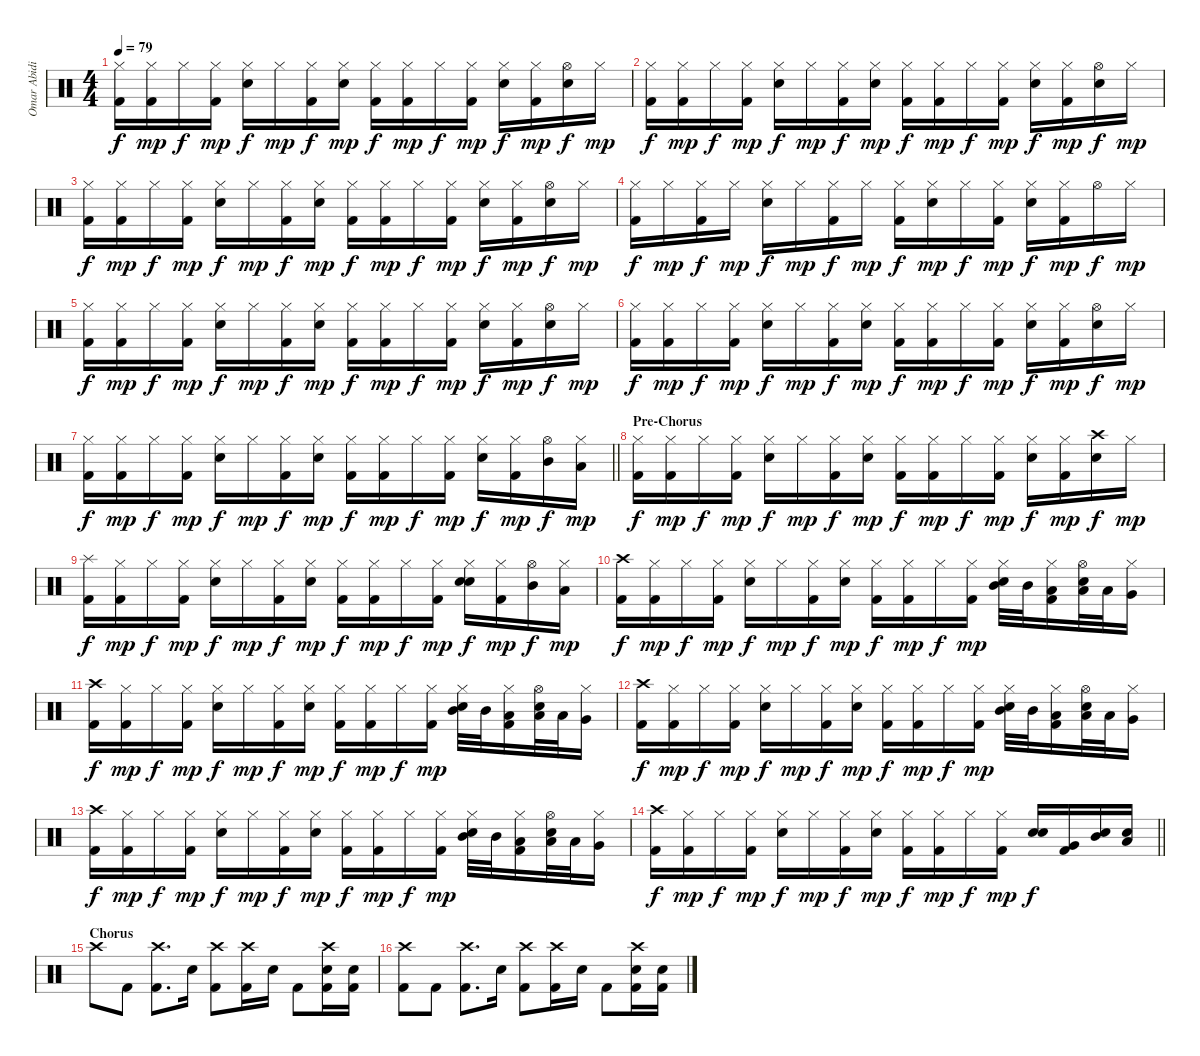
\track ("Omar Abidi" "Omar Abidi") {instrument percussion}
\staff {score}
\articulation defaults
\ts (4 4)
\tempo 79
\clef neutral
\ks c
("Hi-Hat (closed)" "Kick (hit) 2").16{dy f} ("Hi-Hat (closed)" "Kick (hit) 2").16{dy mp} "Hi-Hat (closed)".16{dy f} ("Hi-Hat (closed)" "Kick (hit) 2").16{dy mp} ("Hi-Hat (closed)" "Electric Snare (hit)").16{dy f} "Hi-Hat (closed)".16{dy mp} ("Hi-Hat (closed)" "Kick (hit) 2").16{dy f} ("Hi-Hat (closed)" "Electric Snare (hit)").16{dy mp} ("Hi-Hat (closed)" "Kick (hit) 2").16{dy f} ("Hi-Hat (closed)" "Kick (hit) 2").16{dy mp} "Hi-Hat (closed)".16{dy f} ("Hi-Hat (closed)" "Kick (hit) 2").16{dy mp} ("Hi-Hat (closed)" "Electric Snare (hit)").16{dy f} ("Hi-Hat (closed)" "Kick (hit) 2").16{dy mp} ("Hi-Hat (open)" "Electric Snare (hit)").16{dy f} "Hi-Hat (closed)".16{dy mp} |
("Hi-Hat (closed)" "Kick (hit) 2").16{dy f} ("Hi-Hat (closed)" "Kick (hit) 2").16{dy mp} "Hi-Hat (closed)".16{dy f} ("Hi-Hat (closed)" "Kick (hit) 2").16{dy mp} ("Hi-Hat (closed)" "Electric Snare (hit)").16{dy f} "Hi-Hat (closed)".16{dy mp} ("Hi-Hat (closed)" "Kick (hit) 2").16{dy f} ("Hi-Hat (closed)" "Electric Snare (hit)").16{dy mp} ("Hi-Hat (closed)" "Kick (hit) 2").16{dy f} ("Hi-Hat (closed)" "Kick (hit) 2").16{dy mp} "Hi-Hat (closed)".16{dy f} ("Hi-Hat (closed)" "Kick (hit) 2").16{dy mp} ("Hi-Hat (closed)" "Electric Snare (hit)").16{dy f} ("Hi-Hat (closed)" "Kick (hit) 2").16{dy mp} ("Hi-Hat (open)" "Electric Snare (hit)").16{dy f} "Hi-Hat (closed)".16{dy mp} |
("Hi-Hat (closed)" "Kick (hit) 2").16{dy f} ("Hi-Hat (closed)" "Kick (hit) 2").16{dy mp} "Hi-Hat (closed)".16{dy f} ("Hi-Hat (closed)" "Kick (hit) 2").16{dy mp} ("Hi-Hat (closed)" "Electric Snare (hit)").16{dy f} "Hi-Hat (closed)".16{dy mp} ("Hi-Hat (closed)" "Kick (hit) 2").16{dy f} ("Hi-Hat (closed)" "Electric Snare (hit)").16{dy mp} ("Hi-Hat (closed)" "Kick (hit) 2").16{dy f} ("Hi-Hat (closed)" "Kick (hit) 2").16{dy mp} "Hi-Hat (closed)".16{dy f} ("Hi-Hat (closed)" "Kick (hit) 2").16{dy mp} ("Hi-Hat (closed)" "Electric Snare (hit)").16{dy f} ("Hi-Hat (closed)" "Kick (hit) 2").16{dy mp} ("Hi-Hat (open)" "Electric Snare (hit)").16{dy f} "Hi-Hat (closed)".16{dy mp} |
("Hi-Hat (closed)" "Kick (hit) 2").16{dy f} "Hi-Hat (closed)".16{dy mp} ("Hi-Hat (closed)" "Kick (hit) 2").16{dy f} "Hi-Hat (closed)".16{dy mp} ("Hi-Hat (closed)" "Electric Snare (hit)").16{dy f} "Hi-Hat (closed)".16{dy mp} ("Hi-Hat (closed)" "Kick (hit) 2").16{dy f} "Hi-Hat (closed)".16{dy mp} ("Hi-Hat (closed)" "Kick (hit) 2").16{dy f} ("Hi-Hat (closed)" "Electric Snare (hit)").16{dy mp} "Hi-Hat (closed)".16{dy f} ("Hi-Hat (closed)" "Kick (hit) 2").16{dy mp} ("Hi-Hat (closed)" "Electric Snare (hit)").16{dy f} ("Hi-Hat (closed)" "Kick (hit) 2").16{dy mp} "Hi-Hat (open)".16{dy f} "Hi-Hat (closed)".16{dy mp} |
("Hi-Hat (closed)" "Kick (hit) 2").16{dy f} ("Hi-Hat (closed)" "Kick (hit) 2").16{dy mp} "Hi-Hat (closed)".16{dy f} ("Hi-Hat (closed)" "Kick (hit) 2").16{dy mp} ("Hi-Hat (closed)" "Electric Snare (hit)").16{dy f} "Hi-Hat (closed)".16{dy mp} ("Hi-Hat (closed)" "Kick (hit) 2").16{dy f} ("Hi-Hat (closed)" "Electric Snare (hit)").16{dy mp} ("Hi-Hat (closed)" "Kick (hit) 2").16{dy f} ("Hi-Hat (closed)" "Kick (hit) 2").16{dy mp} "Hi-Hat (closed)".16{dy f} ("Hi-Hat (closed)" "Kick (hit) 2").16{dy mp} ("Hi-Hat (closed)" "Electric Snare (hit)").16{dy f} ("Hi-Hat (closed)" "Kick (hit) 2").16{dy mp} ("Hi-Hat (open)" "Electric Snare (hit)").16{dy f} "Hi-Hat (closed)".16{dy mp} |
("Hi-Hat (closed)" "Kick (hit) 2").16{dy f} ("Hi-Hat (closed)" "Kick (hit) 2").16{dy mp} "Hi-Hat (closed)".16{dy f} ("Hi-Hat (closed)" "Kick (hit) 2").16{dy mp} ("Hi-Hat (closed)" "Electric Snare (hit)").16{dy f} "Hi-Hat (closed)".16{dy mp} ("Hi-Hat (closed)" "Kick (hit) 2").16{dy f} ("Hi-Hat (closed)" "Electric Snare (hit)").16{dy mp} ("Hi-Hat (closed)" "Kick (hit) 2").16{dy f} ("Hi-Hat (closed)" "Kick (hit) 2").16{dy mp} "Hi-Hat (closed)".16{dy f} ("Hi-Hat (closed)" "Kick (hit) 2").16{dy mp} ("Hi-Hat (closed)" "Electric Snare (hit)").16{dy f} ("Hi-Hat (closed)" "Kick (hit) 2").16{dy mp} ("Hi-Hat (open)" "Electric Snare (hit)").16{dy f} "Hi-Hat (closed)".16{dy mp} |
\barLineRight lightlight
("Hi-Hat (closed)" "Kick (hit) 2").16{dy f} ("Hi-Hat (closed)" "Kick (hit) 2").16{dy mp} "Hi-Hat (closed)".16{dy f} ("Hi-Hat (closed)" "Kick (hit) 2").16{dy mp} ("Hi-Hat (closed)" "Electric Snare (hit)").16{dy f} "Hi-Hat (closed)".16{dy mp} ("Hi-Hat (closed)" "Kick (hit) 2").16{dy f} ("Hi-Hat (closed)" "Electric Snare (hit)").16{dy mp} ("Hi-Hat (closed)" "Kick (hit) 2").16{dy f} ("Hi-Hat (closed)" "Kick (hit) 2").16{dy mp} "Hi-Hat (closed)".16{dy f} ("Hi-Hat (closed)" "Kick (hit) 2").16{dy mp} ("Hi-Hat (closed)" "Electric Snare (hit)").16{dy f} ("Hi-Hat (closed)" "Kick (hit) 2").16{dy mp} ("Hi-Hat (open)" "Mid Tom (hit)").16{dy f} ("Hi-Hat (closed)" "Low Tom (hit)").16{dy mp} |
\section ("" "Pre-Chorus")
("Hi-Hat (closed)" "Kick (hit) 2").16{dy f} ("Hi-Hat (closed)" "Kick (hit) 2").16{dy mp} "Hi-Hat (closed)".16{dy f} ("Hi-Hat (closed)" "Kick (hit) 2").16{dy mp} ("Hi-Hat (closed)" "Electric Snare (hit)").16{dy f} "Hi-Hat (closed)".16{dy mp} ("Hi-Hat (closed)" "Kick (hit) 2").16{dy f} ("Hi-Hat (closed)" "Electric Snare (hit)").16{dy mp} ("Hi-Hat (closed)" "Kick (hit) 2").16{dy f} ("Hi-Hat (closed)" "Kick (hit) 2").16{dy mp} "Hi-Hat (closed)".16{dy f} ("Hi-Hat (closed)" "Kick (hit) 2").16{dy mp} ("Hi-Hat (closed)" "Electric Snare (hit)").16{dy f} ("Hi-Hat (closed)" "Kick (hit) 2").16{dy mp} ("Crash high (hit)" "Electric Snare (hit)").16{dy f} "Hi-Hat (closed)".16{dy mp} |
("Splash (hit)" "Kick (hit) 2").16{dy f} ("Hi-Hat (closed)" "Kick (hit) 2").16{dy mp} "Hi-Hat (closed)".16{dy f} ("Hi-Hat (closed)" "Kick (hit) 2").16{dy mp} ("Hi-Hat (closed)" "Electric Snare (hit)").16{dy f} "Hi-Hat (closed)".16{dy mp} ("Hi-Hat (closed)" "Kick (hit) 2").16{dy f} ("Hi-Hat (closed)" "Electric Snare (hit)").16{dy mp} ("Hi-Hat (closed)" "Kick (hit) 2").16{dy f} ("Hi-Hat (closed)" "Kick (hit) 2").16{dy mp} "Hi-Hat (closed)".16{dy f} ("Hi-Hat (closed)" "Kick (hit) 2").16{dy mp} ("Hi-Hat (closed)" "Electric Snare (hit)" "Electric Snare (hit)").16{bd 240 dy f} ("Hi-Hat (closed)" "Kick (hit) 2").16{dy mp} ("Hi-Hat (open)" "Mid Tom (hit)").16{dy f} ("Hi-Hat (closed)" "Low Tom (hit)").16{dy mp} |
("Crash high (hit)" "Kick (hit) 2").16{dy f} ("Hi-Hat (closed)" "Kick (hit) 2").16{dy mp} "Hi-Hat (closed)".16{dy f} ("Hi-Hat (closed)" "Kick (hit) 2").16{dy mp} ("Hi-Hat (closed)" "Electric Snare (hit)").16{dy f} "Hi-Hat (closed)".16{dy mp} ("Hi-Hat (closed)" "Kick (hit) 2").16{dy f} ("Hi-Hat (closed)" "Electric Snare (hit)").16{dy mp} ("Hi-Hat (closed)" "Kick (hit) 2").16{dy f} ("Hi-Hat (closed)" "Kick (hit) 2").16{dy mp} "Hi-Hat (closed)".16{dy f} ("Hi-Hat (closed)" "Kick (hit) 2").16{dy mp} ("Hi-Hat (closed)" "Electric Snare (hit)" "Mid Tom (hit)").32 "Mid Tom (hit)".32 ("Hi-Hat (closed)" "Low Tom (hit)" "Kick (hit) 2").16 ("Hi-Hat (open)" "Electric Snare (hit)" "Low Tom (hit)").32 "Low Tom (hit)".32 ("Hi-Hat (closed)" "Very Low Tom (hit)").16 |
("Crash high (hit)" "Kick (hit) 2").16{dy f} ("Hi-Hat (closed)" "Kick (hit) 2").16{dy mp} "Hi-Hat (closed)".16{dy f} ("Hi-Hat (closed)" "Kick (hit) 2").16{dy mp} ("Hi-Hat (closed)" "Electric Snare (hit)").16{dy f} "Hi-Hat (closed)".16{dy mp} ("Hi-Hat (closed)" "Kick (hit) 2").16{dy f} ("Hi-Hat (closed)" "Electric Snare (hit)").16{dy mp} ("Hi-Hat (closed)" "Kick (hit) 2").16{dy f} ("Hi-Hat (closed)" "Kick (hit) 2").16{dy mp} "Hi-Hat (closed)".16{dy f} ("Hi-Hat (closed)" "Kick (hit) 2").16{dy mp} ("Hi-Hat (closed)" "Electric Snare (hit)" "Mid Tom (hit)").32 "Mid Tom (hit)".32 ("Hi-Hat (closed)" "Low Tom (hit)" "Kick (hit) 2").16 ("Hi-Hat (open)" "Electric Snare (hit)" "Low Tom (hit)").32 "Low Tom (hit)".32 ("Hi-Hat (closed)" "Very Low Tom (hit)").16 |
("Crash high (hit)" "Kick (hit) 2").16{dy f} ("Hi-Hat (closed)" "Kick (hit) 2").16{dy mp} "Hi-Hat (closed)".16{dy f} ("Hi-Hat (closed)" "Kick (hit) 2").16{dy mp} ("Hi-Hat (closed)" "Electric Snare (hit)").16{dy f} "Hi-Hat (closed)".16{dy mp} ("Hi-Hat (closed)" "Kick (hit) 2").16{dy f} ("Hi-Hat (closed)" "Electric Snare (hit)").16{dy mp} ("Hi-Hat (closed)" "Kick (hit) 2").16{dy f} ("Hi-Hat (closed)" "Kick (hit) 2").16{dy mp} "Hi-Hat (closed)".16{dy f} ("Hi-Hat (closed)" "Kick (hit) 2").16{dy mp} ("Hi-Hat (closed)" "Electric Snare (hit)" "Mid Tom (hit)").32 "Mid Tom (hit)".32 ("Hi-Hat (closed)" "Low Tom (hit)" "Kick (hit) 2").16 ("Hi-Hat (open)" "Electric Snare (hit)" "Low Tom (hit)").32 "Low Tom (hit)".32 ("Hi-Hat (closed)" "Very Low Tom (hit)").16 |
("Crash high (hit)" "Kick (hit) 2").16{dy f} ("Hi-Hat (closed)" "Kick (hit) 2").16{dy mp} "Hi-Hat (closed)".16{dy f} ("Hi-Hat (closed)" "Kick (hit) 2").16{dy mp} ("Hi-Hat (closed)" "Electric Snare (hit)").16{dy f} "Hi-Hat (closed)".16{dy mp} ("Hi-Hat (closed)" "Kick (hit) 2").16{dy f} ("Hi-Hat (closed)" "Electric Snare (hit)").16{dy mp} ("Hi-Hat (closed)" "Kick (hit) 2").16{dy f} ("Hi-Hat (closed)" "Kick (hit) 2").16{dy mp} "Hi-Hat (closed)".16{dy f} ("Hi-Hat (closed)" "Kick (hit) 2").16{dy mp} ("Hi-Hat (closed)" "Electric Snare (hit)" "Mid Tom (hit)").32 "Mid Tom (hit)".32 ("Hi-Hat (closed)" "Low Tom (hit)" "Kick (hit) 2").16 ("Hi-Hat (open)" "Electric Snare (hit)" "Low Tom (hit)").32 "Low Tom (hit)".32 ("Hi-Hat (closed)" "Very Low Tom (hit)").16 |
\barLineRight lightlight
("Crash high (hit)" "Kick (hit) 2").16{dy f} ("Hi-Hat (closed)" "Kick (hit) 2").16{dy mp} "Hi-Hat (closed)".16{dy f} ("Hi-Hat (closed)" "Kick (hit) 2").16{dy mp} ("Hi-Hat (closed)" "Electric Snare (hit)").16{dy f} "Hi-Hat (closed)".16{dy mp} ("Hi-Hat (closed)" "Kick (hit) 2").16{dy f} ("Hi-Hat (closed)" "Electric Snare (hit)").16{dy mp} ("Hi-Hat (closed)" "Kick (hit) 2").16{dy f} ("Hi-Hat (closed)" "Kick (hit) 2").16{dy mp} "Hi-Hat (closed)".16{dy f} ("Hi-Hat (closed)" "Kick (hit) 2").16{dy mp} ("Electric Snare (hit)" "Electric Snare (hit)").16{bd 240 dy f} ("Very Low Tom (hit)" "Kick (hit) 2").16 ("Mid Tom (hit)" "Electric Snare (hit)").16 ("Low Tom (hit)" "Electric Snare (hit)").16 |
\section ("" "Chorus")
"Crash high (hit)".8 "Kick (hit) 2".8 ("Crash high (hit)" "Kick (hit) 2").8{d} "Electric Snare (hit)".16 ("Crash high (hit)" "Kick (hit) 2").8 ("Crash high (hit)" "Kick (hit) 2").16 "Electric Snare (hit)".16 "Kick (hit) 2".8 ("Crash high (hit)" "Electric Snare (hit)" "Kick (hit) 2").16 ("Electric Snare (hit)" "Kick (hit) 2").16 |
("Crash high (hit)" "Kick (hit) 2").8 "Kick (hit) 2".8 ("Crash high (hit)" "Kick (hit) 2").8{d} "Electric Snare (hit)".16 ("Crash high (hit)" "Kick (hit) 2").8 ("Crash high (hit)" "Kick (hit) 2").16 "Electric Snare (hit)".16 "Kick (hit) 2".8 ("Crash high (hit)" "Electric Snare (hit)" "Kick (hit) 2").16 ("Electric Snare (hit)" "Kick (hit) 2").16
